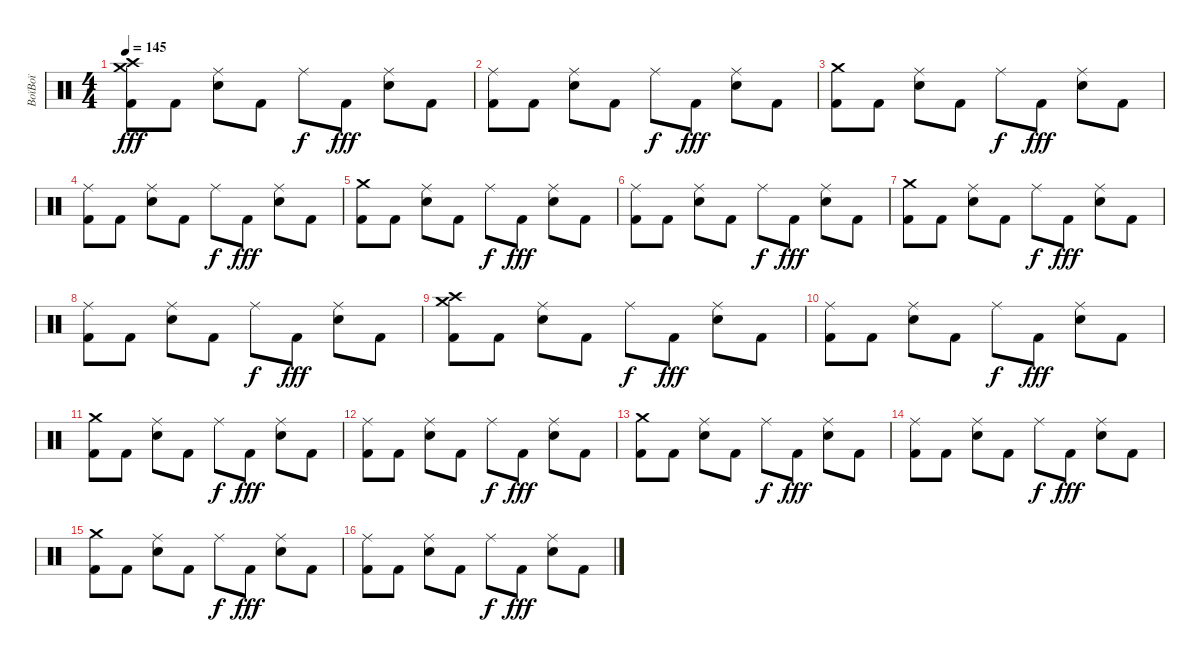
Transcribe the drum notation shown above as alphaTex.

\track ("BoïBoï" "BoïBoï") {instrument percussion}
\staff {score}
\articulation defaults
\ts (4 4)
\tempo 145
\clef neutral
\ks c
("Crash medium (hit)" "Crash high (hit)" "Kick (hit) 2").8{dy fff} "Kick (hit) 2".8 ("Ride (middle)" "Electric Snare (hit)").8 "Kick (hit) 2".8 "Ride (middle)".8{dy f} "Kick (hit) 2".8{dy fff} ("Ride (middle)" "Electric Snare (hit)").8 "Kick (hit) 2".8 |
("Ride (middle)" "Kick (hit) 2").8 "Kick (hit) 2".8 ("Ride (middle)" "Electric Snare (hit)").8 "Kick (hit) 2".8 "Ride (middle)".8{dy f} "Kick (hit) 2".8{dy fff} ("Ride (middle)" "Electric Snare (hit)").8 "Kick (hit) 2".8 |
("Crash medium (hit)" "Kick (hit) 2").8 "Kick (hit) 2".8 ("Ride (middle)" "Electric Snare (hit)").8 "Kick (hit) 2".8 "Ride (middle)".8{dy f} "Kick (hit) 2".8{dy fff} ("Ride (middle)" "Electric Snare (hit)").8 "Kick (hit) 2".8 |
("Ride (middle)" "Kick (hit) 2").8 "Kick (hit) 2".8 ("Ride (middle)" "Electric Snare (hit)").8 "Kick (hit) 2".8 "Ride (middle)".8{dy f} "Kick (hit) 2".8{dy fff} ("Ride (middle)" "Electric Snare (hit)").8 "Kick (hit) 2".8 |
("Crash medium (hit)" "Kick (hit) 2").8 "Kick (hit) 2".8 ("Ride (middle)" "Electric Snare (hit)").8 "Kick (hit) 2".8 "Ride (middle)".8{dy f} "Kick (hit) 2".8{dy fff} ("Ride (middle)" "Electric Snare (hit)").8 "Kick (hit) 2".8 |
("Ride (middle)" "Kick (hit) 2").8 "Kick (hit) 2".8 ("Ride (middle)" "Electric Snare (hit)").8 "Kick (hit) 2".8 "Ride (middle)".8{dy f} "Kick (hit) 2".8{dy fff} ("Ride (middle)" "Electric Snare (hit)").8 "Kick (hit) 2".8 |
("Crash medium (hit)" "Kick (hit) 2").8 "Kick (hit) 2".8 ("Ride (middle)" "Electric Snare (hit)").8 "Kick (hit) 2".8 "Ride (middle)".8{dy f} "Kick (hit) 2".8{dy fff} ("Ride (middle)" "Electric Snare (hit)").8 "Kick (hit) 2".8 |
("Ride (middle)" "Kick (hit) 2").8 "Kick (hit) 2".8 ("Ride (middle)" "Electric Snare (hit)").8 "Kick (hit) 2".8 "Ride (middle)".8{dy f} "Kick (hit) 2".8{dy fff} ("Ride (middle)" "Electric Snare (hit)").8 "Kick (hit) 2".8 |
("Crash medium (hit)" "Crash high (hit)" "Kick (hit) 2").8 "Kick (hit) 2".8 ("Ride (middle)" "Electric Snare (hit)").8 "Kick (hit) 2".8 "Ride (middle)".8{dy f} "Kick (hit) 2".8{dy fff} ("Ride (middle)" "Electric Snare (hit)").8 "Kick (hit) 2".8 |
("Ride (middle)" "Kick (hit) 2").8 "Kick (hit) 2".8 ("Ride (middle)" "Electric Snare (hit)").8 "Kick (hit) 2".8 "Ride (middle)".8{dy f} "Kick (hit) 2".8{dy fff} ("Ride (middle)" "Electric Snare (hit)").8 "Kick (hit) 2".8 |
("Crash medium (hit)" "Kick (hit) 2").8 "Kick (hit) 2".8 ("Ride (middle)" "Electric Snare (hit)").8 "Kick (hit) 2".8 "Ride (middle)".8{dy f} "Kick (hit) 2".8{dy fff} ("Ride (middle)" "Electric Snare (hit)").8 "Kick (hit) 2".8 |
("Ride (middle)" "Kick (hit) 2").8 "Kick (hit) 2".8 ("Ride (middle)" "Electric Snare (hit)").8 "Kick (hit) 2".8 "Ride (middle)".8{dy f} "Kick (hit) 2".8{dy fff} ("Ride (middle)" "Electric Snare (hit)").8 "Kick (hit) 2".8 |
("Crash medium (hit)" "Kick (hit) 2").8 "Kick (hit) 2".8 ("Ride (middle)" "Electric Snare (hit)").8 "Kick (hit) 2".8 "Ride (middle)".8{dy f} "Kick (hit) 2".8{dy fff} ("Ride (middle)" "Electric Snare (hit)").8 "Kick (hit) 2".8 |
("Ride (middle)" "Kick (hit) 2").8 "Kick (hit) 2".8 ("Ride (middle)" "Electric Snare (hit)").8 "Kick (hit) 2".8 "Ride (middle)".8{dy f} "Kick (hit) 2".8{dy fff} ("Ride (middle)" "Electric Snare (hit)").8 "Kick (hit) 2".8 |
("Crash medium (hit)" "Kick (hit) 2").8 "Kick (hit) 2".8 ("Ride (middle)" "Electric Snare (hit)").8 "Kick (hit) 2".8 "Ride (middle)".8{dy f} "Kick (hit) 2".8{dy fff} ("Ride (middle)" "Electric Snare (hit)").8 "Kick (hit) 2".8 |
("Ride (middle)" "Kick (hit) 2").8 "Kick (hit) 2".8 ("Ride (middle)" "Electric Snare (hit)").8 "Kick (hit) 2".8 "Ride (middle)".8{dy f} "Kick (hit) 2".8{dy fff} ("Ride (middle)" "Electric Snare (hit)").8 "Kick (hit) 2".8
